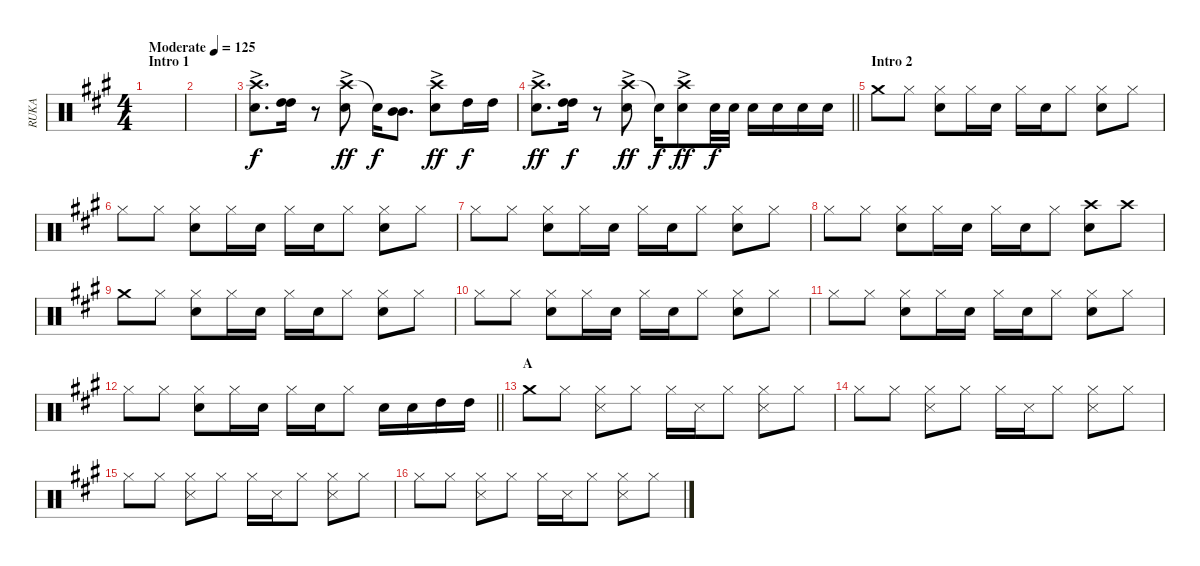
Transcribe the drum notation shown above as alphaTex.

\track ("RUKA" "RUKA") {instrument percussion}
\staff {score}
\articulation defaults
\ts (4 4)
\section ("" "Intro 1")
\tempo (125 "Moderate")
\clef neutral
\ks a
|
|
("Crash high (hit)"{ac} "Snare (hit) 2").8{d} ("High Tom (hit)" "High Tom (hit)").16{dy f} r.8 ("Crash high (hit)"{ac} "Snare (hit) 2").8{dy ff} "Snare (hit)"{t}.16{dy f} ("Mid Tom (hit)" "Mid Tom (hit)").8{d} ("Crash high (hit)"{ac} "Snare (hit) 2").8{dy ff} "High Tom (hit)".16{dy f} "High Tom (hit)".16 |
\barLineRight lightlight
("Crash high (hit)"{ac} "Snare (hit) 2").8{d dy ff} ("High Tom (hit)" "High Tom (hit)").16{dy f} r.8 ("Crash high (hit)"{ac} "Snare (hit) 2").8{dy ff} "Snare (hit)"{t}.16{dy f} ("Crash high (hit)"{ac} "Snare (hit) 2").8{dy ff} "Snare (hit) 2".32{dy f} "Snare (hit) 2".32 "Snare (hit) 2".16 "Snare (hit) 2".16 "Snare (hit) 2".16 "Snare (hit) 2".16 |
\section ("" "Intro 2")
"Crash medium (hit)".8 "Hi-Hat (closed)".8 ("Hi-Hat (closed)" "Snare (hit) 2").8 "Hi-Hat (closed)".16 "Snare (hit) 2".16 "Hi-Hat (closed)".16 "Snare (hit) 2".16 "Hi-Hat (closed)".8 ("Hi-Hat (closed)" "Snare (hit) 2").8 "Hi-Hat (closed)".8 |
"Hi-Hat (closed)".8 "Hi-Hat (closed)".8 ("Hi-Hat (closed)" "Snare (hit) 2").8 "Hi-Hat (closed)".16 "Snare (hit) 2".16 "Hi-Hat (closed)".16 "Snare (hit) 2".16 "Hi-Hat (closed)".8 ("Hi-Hat (closed)" "Snare (hit) 2").8 "Hi-Hat (closed)".8 |
"Hi-Hat (closed)".8 "Hi-Hat (closed)".8 ("Hi-Hat (closed)" "Snare (hit) 2").8 "Hi-Hat (closed)".16 "Snare (hit) 2".16 "Hi-Hat (closed)".16 "Snare (hit) 2".16 "Hi-Hat (closed)".8 ("Hi-Hat (closed)" "Snare (hit) 2").8 "Hi-Hat (closed)".8 |
"Hi-Hat (closed)".8 "Hi-Hat (closed)".8 ("Hi-Hat (closed)" "Snare (hit) 2").8 "Hi-Hat (closed)".16 "Snare (hit) 2".16 "Hi-Hat (closed)".16 "Snare (hit) 2".16 "Hi-Hat (closed)".8 ("Crash high (hit)" "Snare (hit) 2").8 "Crash high (hit)".8 |
"Crash medium (hit)".8 "Hi-Hat (closed)".8 ("Hi-Hat (closed)" "Snare (hit) 2").8 "Hi-Hat (closed)".16 "Snare (hit) 2".16 "Hi-Hat (closed)".16 "Snare (hit) 2".16 "Hi-Hat (closed)".8 ("Hi-Hat (closed)" "Snare (hit) 2").8 "Hi-Hat (closed)".8 |
"Hi-Hat (closed)".8 "Hi-Hat (closed)".8 ("Hi-Hat (closed)" "Snare (hit) 2").8 "Hi-Hat (closed)".16 "Snare (hit) 2".16 "Hi-Hat (closed)".16 "Snare (hit) 2".16 "Hi-Hat (closed)".8 ("Hi-Hat (closed)" "Snare (hit) 2").8 "Hi-Hat (closed)".8 |
"Hi-Hat (closed)".8 "Hi-Hat (closed)".8 ("Hi-Hat (closed)" "Snare (hit) 2").8 "Hi-Hat (closed)".16 "Snare (hit) 2".16 "Hi-Hat (closed)".16 "Snare (hit) 2".16 "Hi-Hat (closed)".8 ("Hi-Hat (closed)" "Snare (hit) 2").8 "Hi-Hat (closed)".8 |
\barLineRight lightlight "Hi-Hat (closed)".8 "Hi-Hat (closed)".8
("Hi-Hat (closed)" "Snare (hit) 2").8 "Hi-Hat (closed)".16 "Snare (hit) 2".16 "Hi-Hat (closed)".16 "Snare (hit) 2".16 "Hi-Hat (closed)".8 "Snare (hit) 2".16 "Snare (hit) 2".16 "High Tom (hit)".16 "High Tom (hit)".16 |
\section ("" "A")
"Crash medium (hit)".8 "Hi-Hat (closed)".8 ("Hi-Hat (closed)" "Snare (side stick) 3").8 "Hi-Hat (closed)".8 "Hi-Hat (closed)".16 "Snare (side stick) 3".16 "Hi-Hat (closed)".8 ("Hi-Hat (closed)" "Snare (side stick) 3").8 "Hi-Hat (closed)".8 |
"Hi-Hat (closed)".8 "Hi-Hat (closed)".8 ("Hi-Hat (closed)" "Snare (side stick) 3").8 "Hi-Hat (closed)".8 "Hi-Hat (closed)".16 "Snare (side stick) 3".16 "Hi-Hat (closed)".8 ("Hi-Hat (closed)" "Snare (side stick) 3").8 "Hi-Hat (closed)".8 |
"Hi-Hat (closed)".8 "Hi-Hat (closed)".8 ("Hi-Hat (closed)" "Snare (side stick) 3").8 "Hi-Hat (closed)".8 "Hi-Hat (closed)".16 "Snare (side stick) 3".16 "Hi-Hat (closed)".8 ("Hi-Hat (closed)" "Snare (side stick) 3").8 "Hi-Hat (closed)".8 |
"Hi-Hat (closed)".8 "Hi-Hat (closed)".8 ("Hi-Hat (closed)" "Snare (side stick) 3").8 "Hi-Hat (closed)".8 "Hi-Hat (closed)".16 "Snare (side stick) 3".16 "Hi-Hat (closed)".8 ("Hi-Hat (closed)" "Snare (side stick) 3").8 "Hi-Hat (closed)".8
